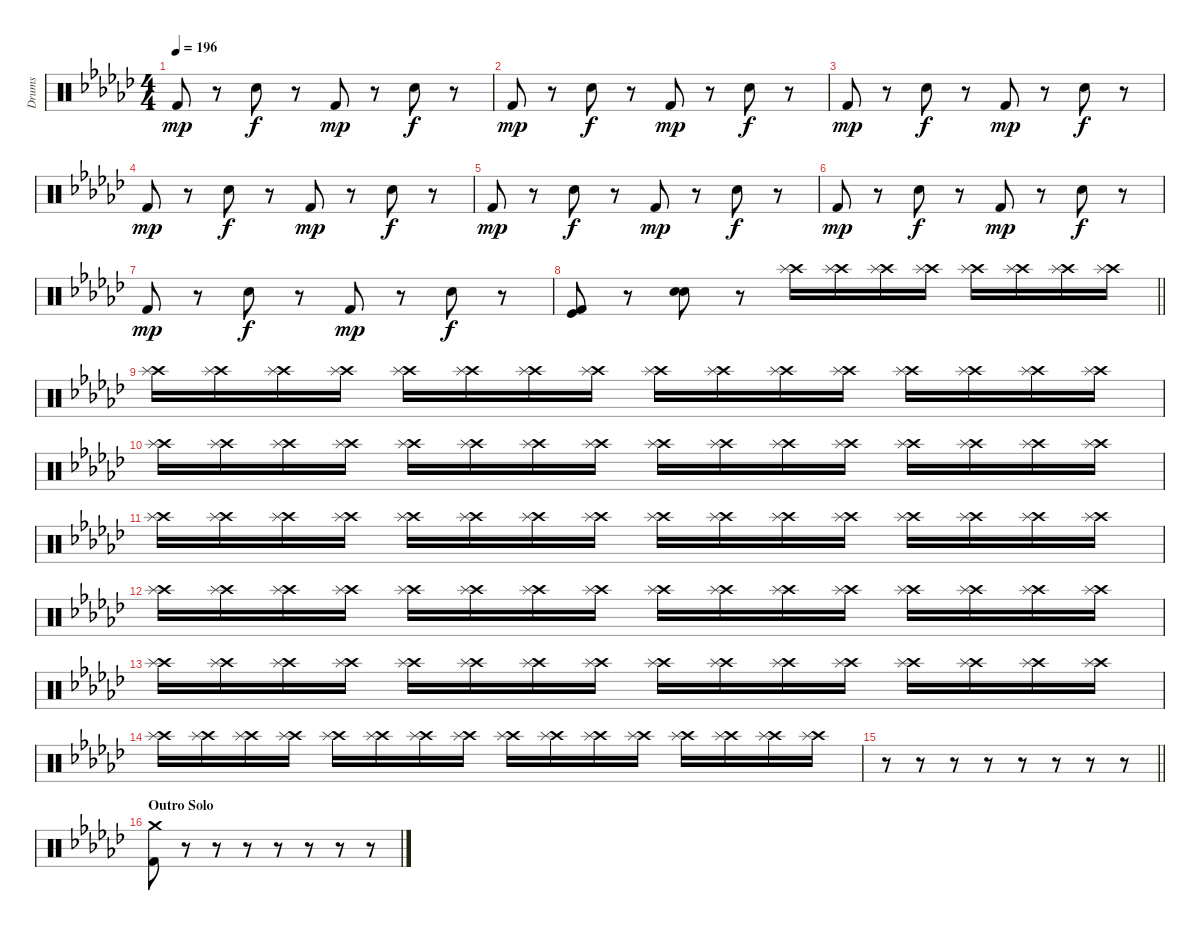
\track ("Drums" "Drums") {instrument percussion}
\staff {score}
\articulation defaults
\ts (4 4)
\tempo 196
\clef neutral
\ks gb "Kick (hit) 2".8{dy mp}
r.8 "Snare (hit) 2".8{dy f} r.8 "Kick (hit) 2".8{dy mp} r.8 "Snare (hit) 2".8{dy f} r.8 |
"Kick (hit) 2".8{dy mp} r.8 "Snare (hit) 2".8{dy f} r.8 "Kick (hit) 2".8{dy mp} r.8 "Snare (hit) 2".8{dy f} r.8 |
"Kick (hit) 2".8{dy mp} r.8 "Snare (hit) 2".8{dy f} r.8 "Kick (hit) 2".8{dy mp} r.8 "Snare (hit) 2".8{dy f} r.8 |
"Kick (hit) 2".8{dy mp} r.8 "Snare (hit) 2".8{dy f} r.8 "Kick (hit) 2".8{dy mp} r.8 "Snare (hit) 2".8{dy f} r.8 |
"Kick (hit) 2".8{dy mp} r.8 "Snare (hit) 2".8{dy f} r.8 "Kick (hit) 2".8{dy mp} r.8 "Snare (hit) 2".8{dy f} r.8 |
"Kick (hit) 2".8{dy mp} r.8 "Snare (hit) 2".8{dy f} r.8 "Kick (hit) 2".8{dy mp} r.8 "Snare (hit) 2".8{dy f} r.8 |
"Kick (hit) 2".8{dy mp} r.8 "Snare (hit) 2".8{dy f} r.8 "Kick (hit) 2".8{dy mp} r.8 "Snare (hit) 2".8{dy f} r.8 |
\barLineRight lightlight
("Kick (hit) 2" "Kick (hit)").8 r.8 ("Snare (hit) 2" "Electric Snare (hit)").8 r.8 ("Crash high (hit)" "Splash (hit)").16 ("Crash high (hit)" "Splash (hit)").16 ("Crash high (hit)" "Splash (hit)").16 ("Crash high (hit)" "Splash (hit)").16 ("Crash high (hit)" "Splash (hit)").16 ("Crash high (hit)" "Splash (hit)").16 ("Crash high (hit)" "Splash (hit)").16 ("Crash high (hit)" "Splash (hit)").16 |
("Crash high (hit)" "Splash (hit)").16 ("Crash high (hit)" "Splash (hit)").16 ("Crash high (hit)" "Splash (hit)").16 ("Crash high (hit)" "Splash (hit)").16 ("Crash high (hit)" "Splash (hit)").16 ("Crash high (hit)" "Splash (hit)").16 ("Crash high (hit)" "Splash (hit)").16 ("Crash high (hit)" "Splash (hit)").16 ("Crash high (hit)" "Splash (hit)").16 ("Crash high (hit)" "Splash (hit)").16 ("Crash high (hit)" "Splash (hit)").16 ("Crash high (hit)" "Splash (hit)").16 ("Crash high (hit)" "Splash (hit)").16 ("Crash high (hit)" "Splash (hit)").16 ("Crash high (hit)" "Splash (hit)").16 ("Crash high (hit)" "Splash (hit)").16 |
("Crash high (hit)" "Splash (hit)").16 ("Crash high (hit)" "Splash (hit)").16 ("Crash high (hit)" "Splash (hit)").16 ("Crash high (hit)" "Splash (hit)").16 ("Crash high (hit)" "Splash (hit)").16 ("Crash high (hit)" "Splash (hit)").16 ("Crash high (hit)" "Splash (hit)").16 ("Crash high (hit)" "Splash (hit)").16 ("Crash high (hit)" "Splash (hit)").16 ("Crash high (hit)" "Splash (hit)").16 ("Crash high (hit)" "Splash (hit)").16 ("Crash high (hit)" "Splash (hit)").16 ("Crash high (hit)" "Splash (hit)").16 ("Crash high (hit)" "Splash (hit)").16 ("Crash high (hit)" "Splash (hit)").16 ("Crash high (hit)" "Splash (hit)").16 |
("Crash high (hit)" "Splash (hit)").16 ("Crash high (hit)" "Splash (hit)").16 ("Crash high (hit)" "Splash (hit)").16 ("Crash high (hit)" "Splash (hit)").16 ("Crash high (hit)" "Splash (hit)").16 ("Crash high (hit)" "Splash (hit)").16 ("Crash high (hit)" "Splash (hit)").16 ("Crash high (hit)" "Splash (hit)").16 ("Crash high (hit)" "Splash (hit)").16 ("Crash high (hit)" "Splash (hit)").16 ("Crash high (hit)" "Splash (hit)").16 ("Crash high (hit)" "Splash (hit)").16 ("Crash high (hit)" "Splash (hit)").16 ("Crash high (hit)" "Splash (hit)").16 ("Crash high (hit)" "Splash (hit)").16 ("Crash high (hit)" "Splash (hit)").16 |
("Crash high (hit)" "Splash (hit)").16 ("Crash high (hit)" "Splash (hit)").16 ("Crash high (hit)" "Splash (hit)").16 ("Crash high (hit)" "Splash (hit)").16 ("Crash high (hit)" "Splash (hit)").16 ("Crash high (hit)" "Splash (hit)").16 ("Crash high (hit)" "Splash (hit)").16 ("Crash high (hit)" "Splash (hit)").16 ("Crash high (hit)" "Splash (hit)").16 ("Crash high (hit)" "Splash (hit)").16 ("Crash high (hit)" "Splash (hit)").16 ("Crash high (hit)" "Splash (hit)").16 ("Crash high (hit)" "Splash (hit)").16 ("Crash high (hit)" "Splash (hit)").16 ("Crash high (hit)" "Splash (hit)").16 ("Crash high (hit)" "Splash (hit)").16 |
("Crash high (hit)" "Splash (hit)").16 ("Crash high (hit)" "Splash (hit)").16 ("Crash high (hit)" "Splash (hit)").16 ("Crash high (hit)" "Splash (hit)").16 ("Crash high (hit)" "Splash (hit)").16 ("Crash high (hit)" "Splash (hit)").16 ("Crash high (hit)" "Splash (hit)").16 ("Crash high (hit)" "Splash (hit)").16 ("Crash high (hit)" "Splash (hit)").16 ("Crash high (hit)" "Splash (hit)").16 ("Crash high (hit)" "Splash (hit)").16 ("Crash high (hit)" "Splash (hit)").16 ("Crash high (hit)" "Splash (hit)").16 ("Crash high (hit)" "Splash (hit)").16 ("Crash high (hit)" "Splash (hit)").16 ("Crash high (hit)" "Splash (hit)").16 |
("Crash high (hit)" "Splash (hit)").16 ("Crash high (hit)" "Splash (hit)").16 ("Crash high (hit)" "Splash (hit)").16 ("Crash high (hit)" "Splash (hit)").16 ("Crash high (hit)" "Splash (hit)").16 ("Crash high (hit)" "Splash (hit)").16 ("Crash high (hit)" "Splash (hit)").16 ("Crash high (hit)" "Splash (hit)").16 ("Crash high (hit)" "Splash (hit)").16 ("Crash high (hit)" "Splash (hit)").16 ("Crash high (hit)" "Splash (hit)").16 ("Crash high (hit)" "Splash (hit)").16 ("Crash high (hit)" "Splash (hit)").16 ("Crash high (hit)" "Splash (hit)").16 ("Crash high (hit)" "Splash (hit)").16 ("Crash high (hit)" "Splash (hit)").16 |
\barLineRight lightlight
r.8 r.8 r.8 r.8 r.8 r.8 r.8 r.8 |
\section ("" "Outro Solo")
("Crash medium (hit)" "Kick (hit) 2").8 r.8 r.8 r.8 r.8 r.8 r.8 r.8
